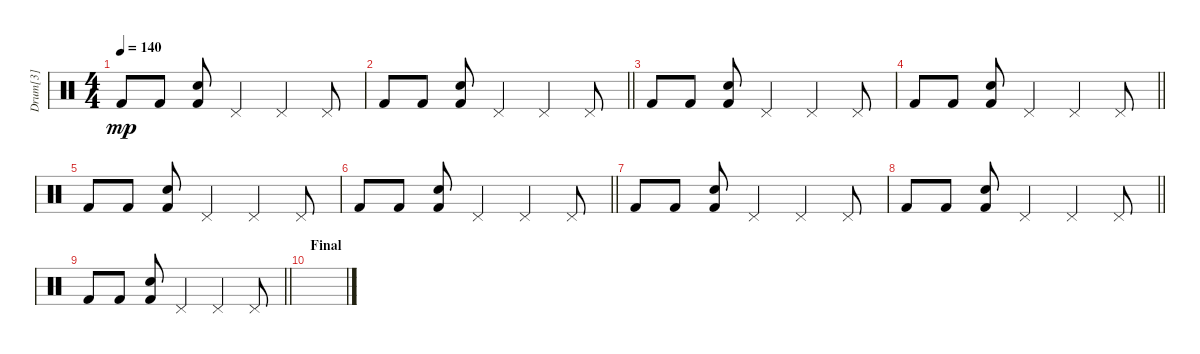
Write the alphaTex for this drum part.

\track ("Drum[3]" "Drum[3]") {instrument percussion}
\staff {score}
\articulation defaults
\ts (4 4)
\tempo 140
\clef neutral
\ks c "Kick (hit) 2".8{dy mp} "Kick (hit) 2".8
("Snare (hit) 2" "Kick (hit) 2").8 "Pedal Hi-Hat (hit)".4 "Pedal Hi-Hat (hit)".4 "Pedal Hi-Hat (hit)".8 |
\barLineRight lightlight "Kick (hit) 2".8 "Kick (hit) 2".8
("Snare (hit) 2" "Kick (hit) 2").8 "Pedal Hi-Hat (hit)".4 "Pedal Hi-Hat (hit)".4 "Pedal Hi-Hat (hit)".8 |
"Kick (hit) 2".8 "Kick (hit) 2".8 ("Snare (hit) 2" "Kick (hit) 2").8 "Pedal Hi-Hat (hit)".4 "Pedal Hi-Hat (hit)".4 "Pedal Hi-Hat (hit)".8 |
\barLineRight lightlight "Kick (hit) 2".8 "Kick (hit) 2".8
("Snare (hit) 2" "Kick (hit) 2").8 "Pedal Hi-Hat (hit)".4 "Pedal Hi-Hat (hit)".4 "Pedal Hi-Hat (hit)".8 |
"Kick (hit) 2".8 "Kick (hit) 2".8 ("Snare (hit) 2" "Kick (hit) 2").8 "Pedal Hi-Hat (hit)".4 "Pedal Hi-Hat (hit)".4 "Pedal Hi-Hat (hit)".8 |
\barLineRight lightlight "Kick (hit) 2".8 "Kick (hit) 2".8
("Snare (hit) 2" "Kick (hit) 2").8 "Pedal Hi-Hat (hit)".4 "Pedal Hi-Hat (hit)".4 "Pedal Hi-Hat (hit)".8 |
"Kick (hit) 2".8 "Kick (hit) 2".8 ("Snare (hit) 2" "Kick (hit) 2").8 "Pedal Hi-Hat (hit)".4 "Pedal Hi-Hat (hit)".4 "Pedal Hi-Hat (hit)".8 |
\barLineRight lightlight "Kick (hit) 2".8 "Kick (hit) 2".8
("Snare (hit) 2" "Kick (hit) 2").8 "Pedal Hi-Hat (hit)".4 "Pedal Hi-Hat (hit)".4 "Pedal Hi-Hat (hit)".8 |
\barLineRight lightlight "Kick (hit) 2".8 "Kick (hit) 2".8
("Snare (hit) 2" "Kick (hit) 2").8 "Pedal Hi-Hat (hit)".4 "Pedal Hi-Hat (hit)".4 "Pedal Hi-Hat (hit)".8 |
\section ("" "Final")
